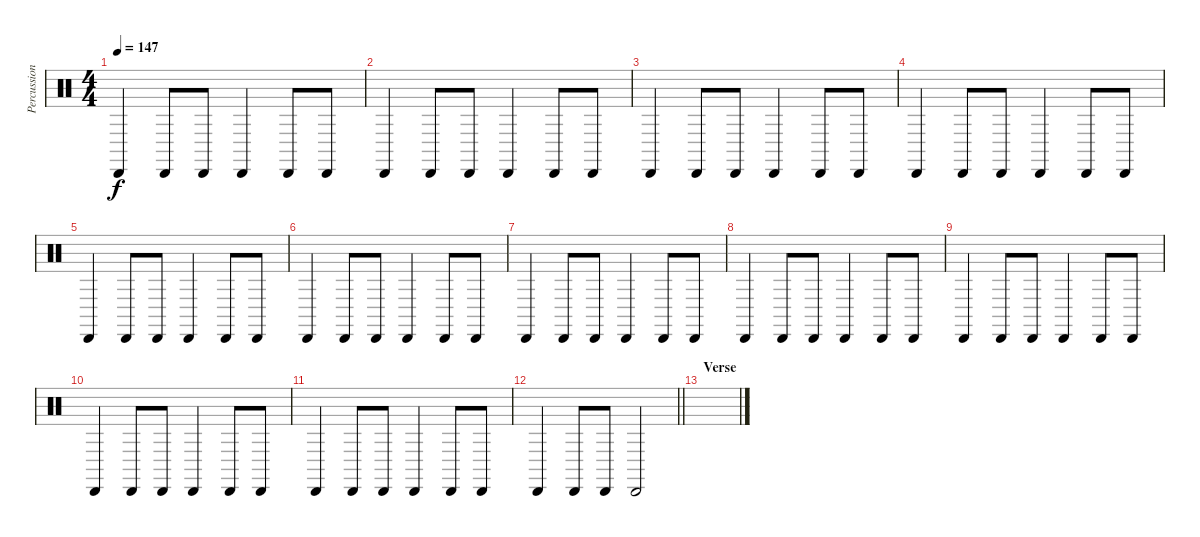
\track ("Percussion (Matt Laug)" "Percussion") {instrument percussion}
\staff {score}
\articulation defaults
\ts (4 4)
\tempo 147
\clef neutral
\ks c "Cabasa (hit)".4{dy f} "Cabasa (hit)".8 "Cabasa (hit)".8 "Cabasa (hit)".4 "Cabasa (hit)".8 "Cabasa (hit)".8
|
"Cabasa (hit)".4 "Cabasa (hit)".8 "Cabasa (hit)".8 "Cabasa (hit)".4 "Cabasa (hit)".8 "Cabasa (hit)".8 |
"Cabasa (hit)".4 "Cabasa (hit)".8 "Cabasa (hit)".8 "Cabasa (hit)".4 "Cabasa (hit)".8 "Cabasa (hit)".8 |
"Cabasa (hit)".4 "Cabasa (hit)".8 "Cabasa (hit)".8 "Cabasa (hit)".4 "Cabasa (hit)".8 "Cabasa (hit)".8 |
"Cabasa (hit)".4 "Cabasa (hit)".8 "Cabasa (hit)".8 "Cabasa (hit)".4 "Cabasa (hit)".8 "Cabasa (hit)".8 |
"Cabasa (hit)".4 "Cabasa (hit)".8 "Cabasa (hit)".8 "Cabasa (hit)".4 "Cabasa (hit)".8 "Cabasa (hit)".8 |
"Cabasa (hit)".4 "Cabasa (hit)".8 "Cabasa (hit)".8 "Cabasa (hit)".4 "Cabasa (hit)".8 "Cabasa (hit)".8 |
"Cabasa (hit)".4 "Cabasa (hit)".8 "Cabasa (hit)".8 "Cabasa (hit)".4 "Cabasa (hit)".8 "Cabasa (hit)".8 |
"Cabasa (hit)".4 "Cabasa (hit)".8 "Cabasa (hit)".8 "Cabasa (hit)".4 "Cabasa (hit)".8 "Cabasa (hit)".8 |
"Cabasa (hit)".4 "Cabasa (hit)".8 "Cabasa (hit)".8 "Cabasa (hit)".4 "Cabasa (hit)".8 "Cabasa (hit)".8 |
"Cabasa (hit)".4 "Cabasa (hit)".8 "Cabasa (hit)".8 "Cabasa (hit)".4 "Cabasa (hit)".8 "Cabasa (hit)".8 |
\barLineRight lightlight "Cabasa (hit)".4 "Cabasa (hit)".8 "Cabasa (hit)".8 "Cabasa (hit)".2
|
\section ("" "Verse")
